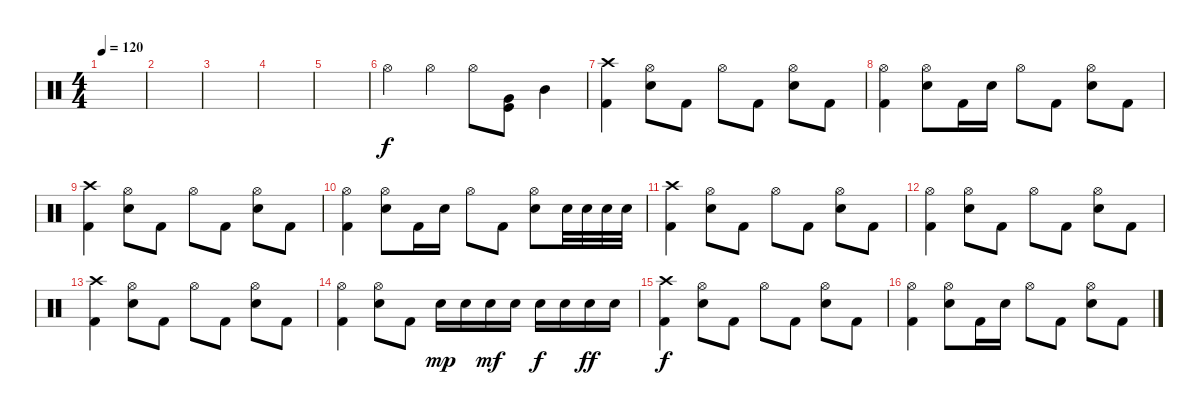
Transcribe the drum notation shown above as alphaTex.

\track "" {instrument percussion}
\staff {score}
\articulation defaults
\ts (4 4)
\tempo 120
\clef neutral
\ks c
|
|
|
|
|
"Hi-Hat (open)".4 "Hi-Hat (open)".4 "Hi-Hat (open)".8 ("Kick (hit)" "Very Low Tom (hit)").8{bd 240} "Mid Tom (hit)".4 |
("Crash high (hit)" "Kick (hit) 2").4 ("Hi-Hat (open)" "Snare (hit) 2").8 "Kick (hit) 2".8 "Hi-Hat (open)".8 "Kick (hit) 2".8 ("Hi-Hat (open)" "Snare (hit) 2").8 "Kick (hit) 2".8 |
("Hi-Hat (open)" "Kick (hit) 2").4 ("Hi-Hat (open)" "Snare (hit) 2").8 "Kick (hit) 2".16 "Snare (hit) 2".16 "Hi-Hat (open)".8 "Kick (hit) 2".8 ("Hi-Hat (open)" "Snare (hit) 2").8 "Kick (hit) 2".8 |
("Crash high (hit)" "Kick (hit) 2").4 ("Hi-Hat (open)" "Snare (hit) 2").8 "Kick (hit) 2".8 "Hi-Hat (open)".8 "Kick (hit) 2".8 ("Hi-Hat (open)" "Snare (hit) 2").8 "Kick (hit) 2".8 |
("Hi-Hat (open)" "Kick (hit) 2").4 ("Hi-Hat (open)" "Snare (hit) 2").8 "Kick (hit) 2".16 "Snare (hit) 2".16 "Hi-Hat (open)".8 "Kick (hit) 2".8 ("Hi-Hat (open)" "Snare (hit) 2").8 "Snare (hit) 2".32 "Snare (hit) 2".32 "Snare (hit) 2".32 "Snare (hit) 2".32 |
("Crash high (hit)" "Kick (hit) 2").4 ("Hi-Hat (open)" "Snare (hit) 2").8 "Kick (hit) 2".8 "Hi-Hat (open)".8 "Kick (hit) 2".8 ("Hi-Hat (open)" "Snare (hit) 2").8 "Kick (hit) 2".8 |
("Hi-Hat (open)" "Kick (hit) 2").4 ("Hi-Hat (open)" "Snare (hit) 2").8 "Kick (hit) 2".8 "Hi-Hat (open)".8 "Kick (hit) 2".8 ("Hi-Hat (open)" "Snare (hit) 2").8 "Kick (hit) 2".8 |
("Crash high (hit)" "Kick (hit) 2").4 ("Hi-Hat (open)" "Snare (hit) 2").8 "Kick (hit) 2".8 "Hi-Hat (open)".8 "Kick (hit) 2".8 ("Hi-Hat (open)" "Snare (hit) 2").8 "Kick (hit) 2".8 |
("Hi-Hat (open)" "Kick (hit) 2").4 ("Hi-Hat (open)" "Snare (hit) 2").8 "Kick (hit) 2".8 "Snare (hit) 2".16{dy mp} "Snare (hit) 2".16 "Snare (hit) 2".16{dy mf} "Snare (hit) 2".16 "Snare (hit) 2".16{dy f} "Snare (hit) 2".16 "Snare (hit) 2".16{dy ff} "Snare (hit) 2".16 |
("Crash high (hit)" "Kick (hit) 2").4{dy f} ("Hi-Hat (open)" "Snare (hit) 2").8 "Kick (hit) 2".8 "Hi-Hat (open)".8 "Kick (hit) 2".8 ("Hi-Hat (open)" "Snare (hit) 2").8 "Kick (hit) 2".8 |
("Hi-Hat (open)" "Kick (hit) 2").4 ("Hi-Hat (open)" "Snare (hit) 2").8 "Kick (hit) 2".16 "Snare (hit) 2".16 "Hi-Hat (open)".8 "Kick (hit) 2".8 ("Hi-Hat (open)" "Snare (hit) 2").8 "Kick (hit) 2".8
